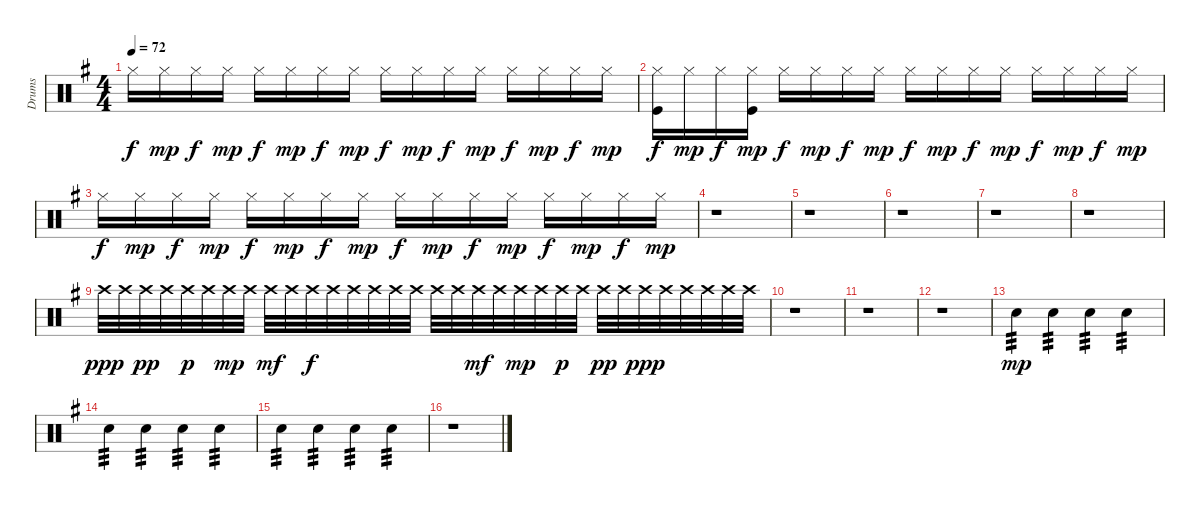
\track ("Drums" "Drums") {instrument percussion}
\staff {score}
\articulation defaults
\ts (4 4)
\tempo 72
\clef neutral
\ks eminor "Hi-Hat (closed)".16{dy f} "Hi-Hat (closed)".16{dy mp} "Hi-Hat (closed)".16{dy f} "Hi-Hat (closed)".16{dy mp} "Hi-Hat (closed)".16{dy f} "Hi-Hat (closed)".16{dy mp} "Hi-Hat (closed)".16{dy f} "Hi-Hat (closed)".16{dy mp} "Hi-Hat (closed)".16{dy f} "Hi-Hat (closed)".16{dy mp} "Hi-Hat (closed)".16{dy f} "Hi-Hat (closed)".16{dy mp} "Hi-Hat (closed)".16{dy f} "Hi-Hat (closed)".16{dy mp} "Hi-Hat (closed)".16{dy f} "Hi-Hat (closed)".16{dy mp}
|
("Hi-Hat (closed)" "Kick (hit)").16{dy f} "Hi-Hat (closed)".16{dy mp} "Hi-Hat (closed)".16{dy f} ("Hi-Hat (closed)" "Kick (hit)").16{dy mp} "Hi-Hat (closed)".16{dy f} "Hi-Hat (closed)".16{dy mp} "Hi-Hat (closed)".16{dy f} "Hi-Hat (closed)".16{dy mp} "Hi-Hat (closed)".16{dy f} "Hi-Hat (closed)".16{dy mp} "Hi-Hat (closed)".16{dy f} "Hi-Hat (closed)".16{dy mp} "Hi-Hat (closed)".16{dy f} "Hi-Hat (closed)".16{dy mp} "Hi-Hat (closed)".16{dy f} "Hi-Hat (closed)".16{dy mp} |
"Hi-Hat (closed)".16{dy f} "Hi-Hat (closed)".16{dy mp} "Hi-Hat (closed)".16{dy f} "Hi-Hat (closed)".16{dy mp} "Hi-Hat (closed)".16{dy f} "Hi-Hat (closed)".16{dy mp} "Hi-Hat (closed)".16{dy f} "Hi-Hat (closed)".16{dy mp} "Hi-Hat (closed)".16{dy f} "Hi-Hat (closed)".16{dy mp} "Hi-Hat (closed)".16{dy f} "Hi-Hat (closed)".16{dy mp} "Hi-Hat (closed)".16{dy f} "Hi-Hat (closed)".16{dy mp} "Hi-Hat (closed)".16{dy f} "Hi-Hat (closed)".16{dy mp} |
r.1 |
r.1 |
r.1 |
r.1 |
r.1 |
"Crash high (hit)".32{dy ppp} "Crash high (hit)".32 "Crash high (hit)".32{dy pp} "Crash high (hit)".32 "Crash high (hit)".32{dy p} "Crash high (hit)".32 "Crash high (hit)".32{dy mp} "Crash high (hit)".32 "Crash high (hit)".32{dy mf} "Crash high (hit)".32 "Crash high (hit)".32{dy f} "Crash high (hit)".32 "Crash high (hit)".32 "Crash high (hit)".32 "Crash high (hit)".32 "Crash high (hit)".32 "Crash high (hit)".32 "Crash high (hit)".32 "Crash high (hit)".32{dy mf} "Crash high (hit)".32 "Crash high (hit)".32{dy mp} "Crash high (hit)".32 "Crash high (hit)".32{dy p} "Crash high (hit)".32 "Crash high (hit)".32{dy pp} "Crash high (hit)".32 "Crash high (hit)".32{dy ppp} "Crash high (hit)".32 "Crash high (hit)".32 "Crash high (hit)".32 "Crash high (hit)".32 "Crash high (hit)".32 |
r.1 |
r.1 |
r.1 |
"Snare (hit) 2".4{tp 3 dy mp} "Snare (hit) 2".4{tp 3} "Snare (hit) 2".4{tp 3} "Snare (hit) 2".4{tp 3} |
"Snare (hit) 2".4{tp 3} "Snare (hit) 2".4{tp 3} "Snare (hit) 2".4{tp 3} "Snare (hit) 2".4{tp 3} |
"Snare (hit) 2".4{tp 3} "Snare (hit) 2".4{tp 3} "Snare (hit) 2".4{tp 3} "Snare (hit) 2".4{tp 3} |
r.1
